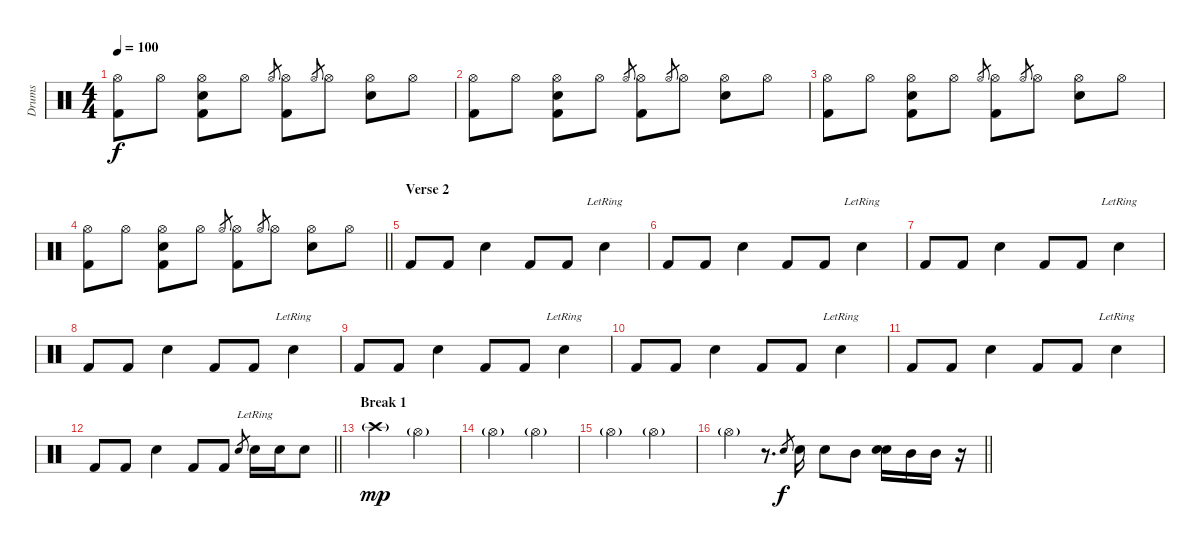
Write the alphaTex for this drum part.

\track ("Drums" "Drums") {instrument percussion}
\staff {score}
\articulation defaults
\ts (4 4)
\tempo 100
\clef neutral
\ks c
("Hi-Hat (open)" "Kick (hit) 2").8{dy f} "Hi-Hat (open)".8 ("Electric Snare (hit)" "Hi-Hat (open)" "Kick (hit) 2").8 "Hi-Hat (open)".8 "Hi-Hat (open)".8{gr} ("Hi-Hat (open)" "Kick (hit) 2").8 "Hi-Hat (open)".8{gr} "Hi-Hat (open)".8 ("Electric Snare (hit)" "Hi-Hat (open)").8 "Hi-Hat (open)".8 |
("Hi-Hat (open)" "Kick (hit) 2").8 "Hi-Hat (open)".8 ("Electric Snare (hit)" "Hi-Hat (open)" "Kick (hit) 2").8 "Hi-Hat (open)".8 "Hi-Hat (open)".8{gr} ("Hi-Hat (open)" "Kick (hit) 2").8 "Hi-Hat (open)".8{gr} "Hi-Hat (open)".8 ("Electric Snare (hit)" "Hi-Hat (open)").8 "Hi-Hat (open)".8 |
("Hi-Hat (open)" "Kick (hit) 2").8 "Hi-Hat (open)".8 ("Electric Snare (hit)" "Hi-Hat (open)" "Kick (hit) 2").8 "Hi-Hat (open)".8 "Hi-Hat (open)".8{gr} ("Hi-Hat (open)" "Kick (hit) 2").8 "Hi-Hat (open)".8{gr} "Hi-Hat (open)".8 ("Electric Snare (hit)" "Hi-Hat (open)").8 "Hi-Hat (open)".8 |
\barLineRight lightlight
("Hi-Hat (open)" "Kick (hit) 2").8 "Hi-Hat (open)".8 ("Electric Snare (hit)" "Hi-Hat (open)" "Kick (hit) 2").8 "Hi-Hat (open)".8 "Hi-Hat (open)".8{gr} ("Hi-Hat (open)" "Kick (hit) 2").8 "Hi-Hat (open)".8{gr} "Hi-Hat (open)".8 ("Electric Snare (hit)" "Hi-Hat (open)").8 "Hi-Hat (open)".8 |
\section ("" "Verse 2")
"Kick (hit) 2".8 "Kick (hit) 2".8 "Electric Snare (hit)".4 "Kick (hit) 2".8 "Kick (hit) 2".8 "Electric Snare (hit)"{lr}.4 |
"Kick (hit) 2".8 "Kick (hit) 2".8 "Electric Snare (hit)".4 "Kick (hit) 2".8 "Kick (hit) 2".8 "Electric Snare (hit)"{lr}.4 |
"Kick (hit) 2".8 "Kick (hit) 2".8 "Electric Snare (hit)".4 "Kick (hit) 2".8 "Kick (hit) 2".8 "Electric Snare (hit)"{lr}.4 |
"Kick (hit) 2".8 "Kick (hit) 2".8 "Electric Snare (hit)".4 "Kick (hit) 2".8 "Kick (hit) 2".8 "Electric Snare (hit)"{lr}.4 |
"Kick (hit) 2".8 "Kick (hit) 2".8 "Electric Snare (hit)".4 "Kick (hit) 2".8 "Kick (hit) 2".8 "Electric Snare (hit)"{lr}.4 |
"Kick (hit) 2".8 "Kick (hit) 2".8 "Electric Snare (hit)".4 "Kick (hit) 2".8 "Kick (hit) 2".8 "Electric Snare (hit)"{lr}.4 |
"Kick (hit) 2".8 "Kick (hit) 2".8 "Electric Snare (hit)".4 "Kick (hit) 2".8 "Kick (hit) 2".8 "Electric Snare (hit)"{lr}.4 |
\barLineRight lightlight "Kick (hit) 2".8 "Kick (hit) 2".8 "Electric Snare (hit)".4 "Kick (hit) 2".8 "Kick (hit) 2".8 "Electric Snare (hit)".8{gr} "Electric Snare (hit)"{lr}.16 "Electric Snare (hit)".16 "Electric Snare (hit)".8
|
\section ("" "Break 1")
"Crash high (hit)"{g}.2{dy mp} "Hi-Hat (open)"{g}.2 |
"Hi-Hat (open)"{g}.2 "Hi-Hat (open)"{g}.2 |
"Hi-Hat (open)"{g}.2 "Hi-Hat (open)"{g}.2 |
\barLineRight lightlight "Hi-Hat (open)"{g}.4
r.8{d} "Electric Snare (hit)".8{gr dy f} "Electric Snare (hit)".16 "Electric Snare (hit)".8 "Mid Tom (hit)".8 ("Electric Snare (hit)" "Electric Snare (hit)").16 "Mid Tom (hit)".16 "Mid Tom (hit)".16 r.16
